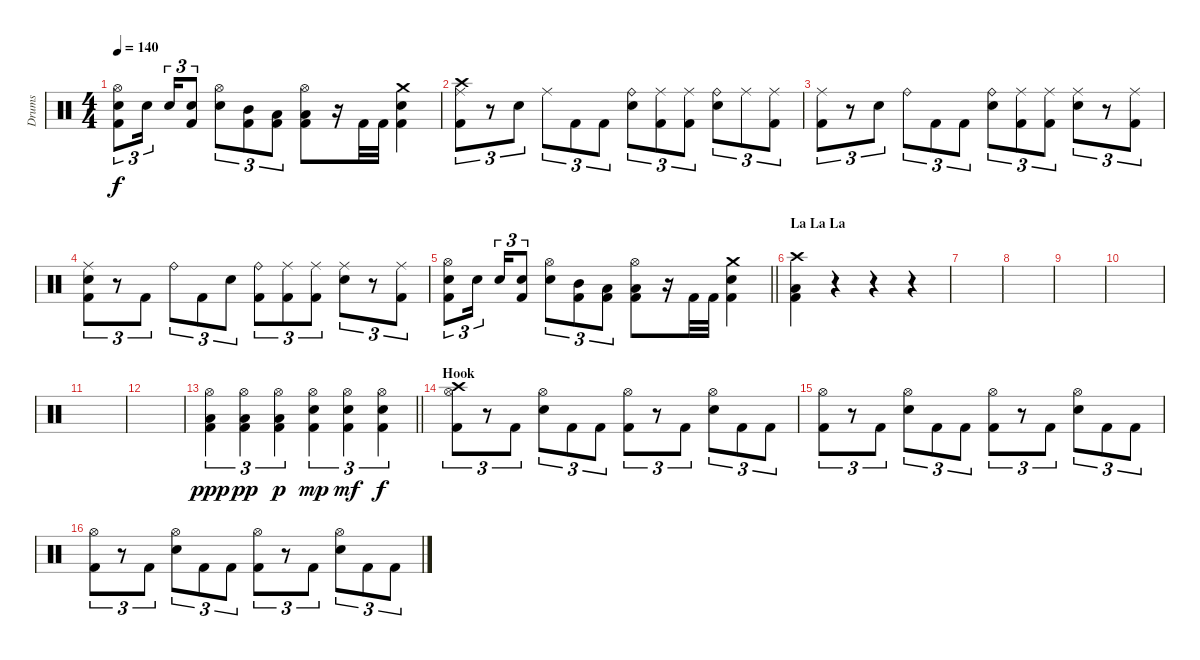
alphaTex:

\track ("Drums" "Drums") {instrument percussion}
\staff {score}
\articulation defaults
\ts (4 4)
\tempo 140
\clef neutral
\ks c
("Hi-Hat (open)" "Snare (hit) 2" "Kick (hit) 2").8{tu (3 2) dy f} "Snare (hit) 2".16{tu (3 2) beam splitsecondary} "Snare (hit) 2".16{tu (3 2)} ("Snare (hit) 2" "Kick (hit) 2").8{tu (3 2)} ("Hi-Hat (open)" "Snare (hit) 2").8{tu (3 2)} ("Mid Tom (hit)" "Kick (hit) 2").8{tu (3 2)} ("Low Tom (hit)" "Kick (hit) 2").8{tu (3 2)} ("Hi-Hat (open)" "Low Floor Tom (hit)" "Kick (hit) 2").8 r.16 "Kick (hit) 2".32 "Kick (hit) 2".32 ("Crash medium (hit)" "Snare (hit) 2" "Kick (hit) 2").4 |
("Crash high (hit)" "Ride (middle)" "Kick (hit) 2").8{tu (3 2)} r.8{tu (3 2)} "Snare (hit) 2".8{tu (3 2)} "Ride (middle)".8{tu (3 2)} "Kick (hit) 2".8{tu (3 2)} "Kick (hit) 2".8{tu (3 2)} ("Ride (bell)" "Snare (hit) 2").8{tu (3 2)} ("Ride (middle)" "Kick (hit) 2").8{tu (3 2)} ("Ride (middle)" "Kick (hit) 2").8{tu (3 2)} ("Ride (bell)" "Snare (hit) 2").8{tu (3 2)} "Ride (middle)".8{tu (3 2)} ("Ride (middle)" "Kick (hit) 2").8{tu (3 2)} |
("Ride (middle)" "Kick (hit) 2").8{tu (3 2)} r.8{tu (3 2)} "Snare (hit) 2".8{tu (3 2)} "Ride (bell)".8{tu (3 2)} "Kick (hit) 2".8{tu (3 2)} "Kick (hit) 2".8{tu (3 2)} ("Ride (bell)" "Snare (hit) 2").8{tu (3 2)} ("Ride (middle)" "Kick (hit) 2").8{tu (3 2)} ("Ride (middle)" "Kick (hit) 2").8{tu (3 2)} ("Ride (middle)" "Snare (hit) 2").8{tu (3 2)} r.8{tu (3 2)} ("Ride (middle)" "Kick (hit) 2").8{tu (3 2)} |
("Ride (middle)" "Snare (hit) 2" "Kick (hit) 2").8{tu (3 2)} r.8{tu (3 2)} "Kick (hit) 2".8{tu (3 2)} "Ride (bell)".8{tu (3 2)} "Kick (hit) 2".8{tu (3 2)} "Snare (hit) 2".8{tu (3 2)} ("Ride (bell)" "Kick (hit) 2").8{tu (3 2)} ("Ride (middle)" "Kick (hit) 2").8{tu (3 2)} ("Ride (middle)" "Kick (hit) 2").8{tu (3 2)} ("Ride (middle)" "Snare (hit) 2").8{tu (3 2)} r.8{tu (3 2)} ("Ride (middle)" "Kick (hit) 2").8{tu (3 2)} |
\barLineRight lightlight
("Hi-Hat (open)" "Snare (hit) 2" "Kick (hit) 2").8{tu (3 2)} "Snare (hit) 2".16{tu (3 2) beam splitsecondary} "Snare (hit) 2".16{tu (3 2)} ("Snare (hit) 2" "Kick (hit) 2").8{tu (3 2)} ("Hi-Hat (open)" "Snare (hit) 2").8{tu (3 2)} ("Mid Tom (hit)" "Kick (hit) 2").8{tu (3 2)} ("Low Tom (hit)" "Kick (hit) 2").8{tu (3 2)} ("Hi-Hat (open)" "Low Floor Tom (hit)" "Kick (hit) 2").8 r.16 "Kick (hit) 2".32 "Kick (hit) 2".32 ("Crash medium (hit)" "Snare (hit) 2" "Kick (hit) 2").4 |
\section ("" "La La La")
("Crash high (hit)" "Low Floor Tom (hit)" "Kick (hit) 2").4 r.4 r.4 r.4 |
|
|
|
|
|
|
\barLineRight lightlight
("Hi-Hat (open)" "Low Floor Tom (hit)" "Kick (hit) 2").4{tu (3 2) dy ppp} ("Hi-Hat (open)" "Low Floor Tom (hit)" "Kick (hit) 2").4{tu (3 2) dy pp} ("Hi-Hat (open)" "Low Floor Tom (hit)" "Kick (hit) 2").4{tu (3 2) dy p} ("Hi-Hat (open)" "Snare (hit) 2" "Kick (hit) 2").4{tu (3 2) dy mp} ("Hi-Hat (open)" "Snare (hit) 2" "Kick (hit) 2").4{tu (3 2) dy mf} ("Hi-Hat (open)" "Snare (hit) 2" "Kick (hit) 2").4{tu (3 2) dy f} |
\section ("" "Hook")
("Crash high (hit)" "Hi-Hat (open)" "Kick (hit) 2").8{tu (3 2)} r.8{tu (3 2)} "Kick (hit) 2".8{tu (3 2)} ("Hi-Hat (open)" "Snare (hit) 2").8{tu (3 2)} "Kick (hit) 2".8{tu (3 2)} "Kick (hit) 2".8{tu (3 2)} ("Hi-Hat (open)" "Kick (hit) 2").8{tu (3 2)} r.8{tu (3 2)} "Kick (hit) 2".8{tu (3 2)} ("Hi-Hat (open)" "Snare (hit) 2").8{tu (3 2)} "Kick (hit) 2".8{tu (3 2)} "Kick (hit) 2".8{tu (3 2)} |
("Hi-Hat (open)" "Kick (hit) 2").8{tu (3 2)} r.8{tu (3 2)} "Kick (hit) 2".8{tu (3 2)} ("Hi-Hat (open)" "Snare (hit) 2").8{tu (3 2)} "Kick (hit) 2".8{tu (3 2)} "Kick (hit) 2".8{tu (3 2)} ("Hi-Hat (open)" "Kick (hit) 2").8{tu (3 2)} r.8{tu (3 2)} "Kick (hit) 2".8{tu (3 2)} ("Hi-Hat (open)" "Snare (hit) 2").8{tu (3 2)} "Kick (hit) 2".8{tu (3 2)} "Kick (hit) 2".8{tu (3 2)} |
("Hi-Hat (open)" "Kick (hit) 2").8{tu (3 2)} r.8{tu (3 2)} "Kick (hit) 2".8{tu (3 2)} ("Hi-Hat (open)" "Snare (hit) 2").8{tu (3 2)} "Kick (hit) 2".8{tu (3 2)} "Kick (hit) 2".8{tu (3 2)} ("Hi-Hat (open)" "Kick (hit) 2").8{tu (3 2)} r.8{tu (3 2)} "Kick (hit) 2".8{tu (3 2)} ("Hi-Hat (open)" "Snare (hit) 2").8{tu (3 2)} "Kick (hit) 2".8{tu (3 2)} "Kick (hit) 2".8{tu (3 2)}
